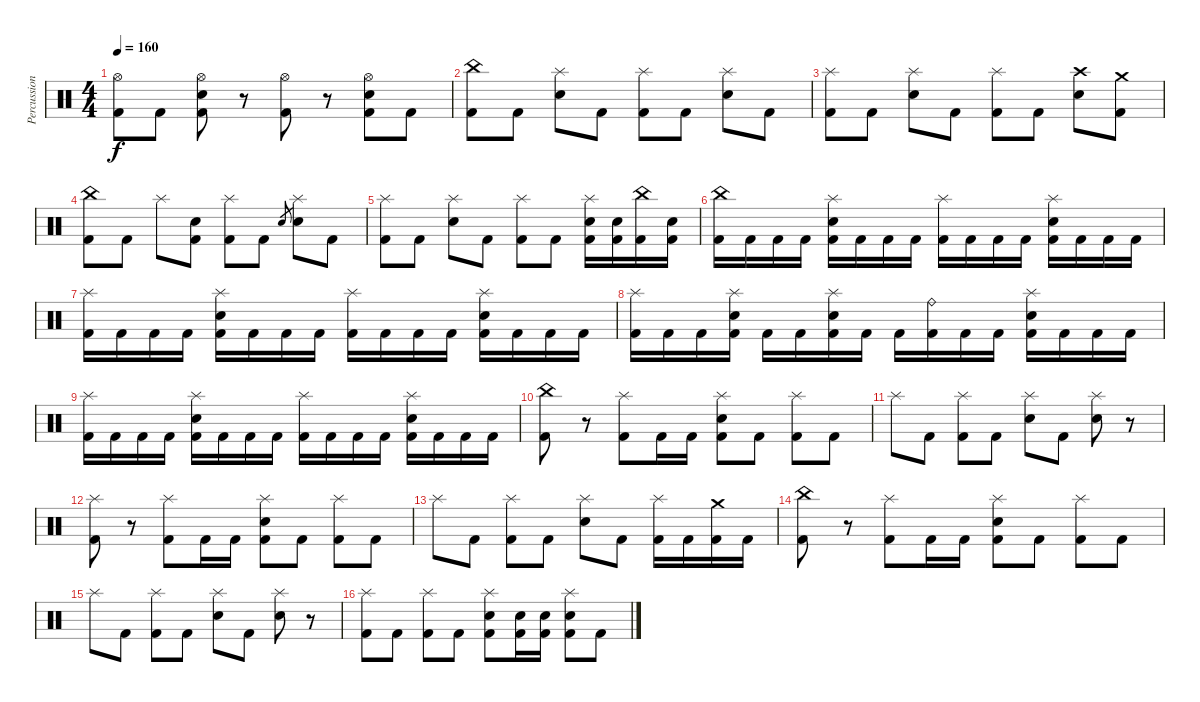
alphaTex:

\track ("Percussion" "Percussion") {instrument percussion}
\staff {score}
\articulation defaults
\ts (4 4)
\tempo 160
\clef neutral
\ks c
("Hi-Hat (open)" "Kick (hit) 2").8{dy f} "Kick (hit) 2".8 ("Hi-Hat (open)" "Electric Snare (hit)" "Kick (hit) 2").8 r.8 ("Hi-Hat (open)" "Kick (hit) 2").8 r.8 ("Hi-Hat (open)" "Electric Snare (hit)" "Kick (hit) 2").8 "Kick (hit) 2".8 |
("China (hit)" "Kick (hit) 2").8 "Kick (hit) 2".8 ("Splash (hit)" "Electric Snare (hit)").8 "Kick (hit) 2".8 ("Splash (hit)" "Kick (hit) 2").8 "Kick (hit) 2".8 ("Splash (hit)" "Electric Snare (hit)").8 "Kick (hit) 2".8 |
("Splash (hit)" "Kick (hit) 2").8 "Kick (hit) 2".8 ("Splash (hit)" "Electric Snare (hit)").8 "Kick (hit) 2".8 ("Splash (hit)" "Kick (hit) 2").8 "Kick (hit) 2".8 ("Crash high (hit)" "Electric Snare (hit)").8 ("Crash medium (hit)" "Kick (hit) 2").8 |
("China (hit)" "Kick (hit) 2").8 "Kick (hit) 2".8 "Splash (hit)".8 ("Electric Snare (hit)" "Kick (hit) 2").8 ("Splash (hit)" "Kick (hit) 2").8 "Kick (hit) 2".8 "Electric Snare (hit)".8{gr} ("Splash (hit)" "Electric Snare (hit)").8 "Kick (hit) 2".8 |
("Splash (hit)" "Kick (hit) 2").8 "Kick (hit) 2".8 ("Splash (hit)" "Electric Snare (hit)").8 "Kick (hit) 2".8 ("Splash (hit)" "Kick (hit) 2").8 "Kick (hit) 2".8 ("Splash (hit)" "Electric Snare (hit)" "Kick (hit) 2").16 ("Electric Snare (hit)" "Kick (hit) 2").16 ("China (hit)" "Kick (hit) 2").16 ("Electric Snare (hit)" "Kick (hit) 2").16 |
("China (hit)" "Kick (hit) 2").16 "Kick (hit) 2".16 "Kick (hit) 2".16 "Kick (hit) 2".16 ("Splash (hit)" "Electric Snare (hit)" "Kick (hit) 2").16 "Kick (hit) 2".16 "Kick (hit) 2".16 "Kick (hit) 2".16 ("Splash (hit)" "Kick (hit) 2").16 "Kick (hit) 2".16 "Kick (hit) 2".16 "Kick (hit) 2".16 ("Splash (hit)" "Electric Snare (hit)" "Kick (hit) 2").16 "Kick (hit) 2".16 "Kick (hit) 2".16 "Kick (hit) 2".16 |
("Splash (hit)" "Kick (hit) 2").16 "Kick (hit) 2".16 "Kick (hit) 2".16 "Kick (hit) 2".16 ("Splash (hit)" "Electric Snare (hit)" "Kick (hit) 2").16 "Kick (hit) 2".16 "Kick (hit) 2".16 "Kick (hit) 2".16 ("Splash (hit)" "Kick (hit) 2").16 "Kick (hit) 2".16 "Kick (hit) 2".16 "Kick (hit) 2".16 ("Splash (hit)" "Electric Snare (hit)" "Kick (hit) 2").16 "Kick (hit) 2".16 "Kick (hit) 2".16 "Kick (hit) 2".16 |
("Splash (hit)" "Kick (hit) 2").16 "Kick (hit) 2".16 "Kick (hit) 2".16 ("Splash (hit)" "Electric Snare (hit)" "Kick (hit) 2").16 "Kick (hit) 2".16 "Kick (hit) 2".16 ("Splash (hit)" "Electric Snare (hit)" "Kick (hit) 2").16 "Kick (hit) 2".16 "Kick (hit) 2".16 ("Ride (bell)" "Kick (hit) 2").16 "Kick (hit) 2".16 "Kick (hit) 2".16 ("Splash (hit)" "Electric Snare (hit)" "Kick (hit) 2").16 "Kick (hit) 2".16 "Kick (hit) 2".16 "Kick (hit) 2".16 |
("Splash (hit)" "Kick (hit) 2").16 "Kick (hit) 2".16 "Kick (hit) 2".16 "Kick (hit) 2".16 ("Splash (hit)" "Electric Snare (hit)" "Kick (hit) 2").16 "Kick (hit) 2".16 "Kick (hit) 2".16 "Kick (hit) 2".16 ("Splash (hit)" "Kick (hit) 2").16 "Kick (hit) 2".16 "Kick (hit) 2".16 "Kick (hit) 2".16 ("Splash (hit)" "Electric Snare (hit)" "Kick (hit) 2").16 "Kick (hit) 2".16 "Kick (hit) 2".16 "Kick (hit) 2".16 |
("China (hit)" "Kick (hit) 2").8 r.8 ("Splash (hit)" "Kick (hit) 2").8 "Kick (hit) 2".16 "Kick (hit) 2".16 ("Splash (hit)" "Electric Snare (hit)" "Kick (hit) 2").8 "Kick (hit) 2".8 ("Splash (hit)" "Kick (hit) 2").8 "Kick (hit) 2".8 |
"Splash (hit)".8 "Kick (hit) 2".8 ("Splash (hit)" "Kick (hit) 2").8 "Kick (hit) 2".8 ("Splash (hit)" "Electric Snare (hit)").8 "Kick (hit) 2".8 ("Splash (hit)" "Electric Snare (hit)").8 r.8 |
("Splash (hit)" "Kick (hit) 2").8 r.8 ("Splash (hit)" "Kick (hit) 2").8 "Kick (hit) 2".16 "Kick (hit) 2".16 ("Splash (hit)" "Electric Snare (hit)" "Kick (hit) 2").8 "Kick (hit) 2".8 ("Splash (hit)" "Kick (hit) 2").8 "Kick (hit) 2".8 |
"Splash (hit)".8 "Kick (hit) 2".8 ("Splash (hit)" "Kick (hit) 2").8 "Kick (hit) 2".8 ("Splash (hit)" "Electric Snare (hit)").8 "Kick (hit) 2".8 ("Splash (hit)" "Kick (hit) 2").16 "Kick (hit) 2".16 ("Crash medium (hit)" "Kick (hit) 2").16 "Kick (hit) 2".16 |
("China (hit)" "Kick (hit) 2").8 r.8 ("Splash (hit)" "Kick (hit) 2").8 "Kick (hit) 2".16 "Kick (hit) 2".16 ("Splash (hit)" "Electric Snare (hit)" "Kick (hit) 2").8 "Kick (hit) 2".8 ("Splash (hit)" "Kick (hit) 2").8 "Kick (hit) 2".8 |
"Splash (hit)".8 "Kick (hit) 2".8 ("Splash (hit)" "Kick (hit) 2").8 "Kick (hit) 2".8 ("Splash (hit)" "Electric Snare (hit)").8 "Kick (hit) 2".8 ("Splash (hit)" "Electric Snare (hit)").8 r.8 |
("Splash (hit)" "Kick (hit) 2").8 "Kick (hit) 2".8 ("Splash (hit)" "Kick (hit) 2").8 "Kick (hit) 2".8 ("Splash (hit)" "Electric Snare (hit)" "Kick (hit) 2").8 ("Electric Snare (hit)" "Kick (hit) 2").16 ("Electric Snare (hit)" "Kick (hit) 2").16 ("Splash (hit)" "Electric Snare (hit)" "Kick (hit) 2").8 "Kick (hit) 2".8
